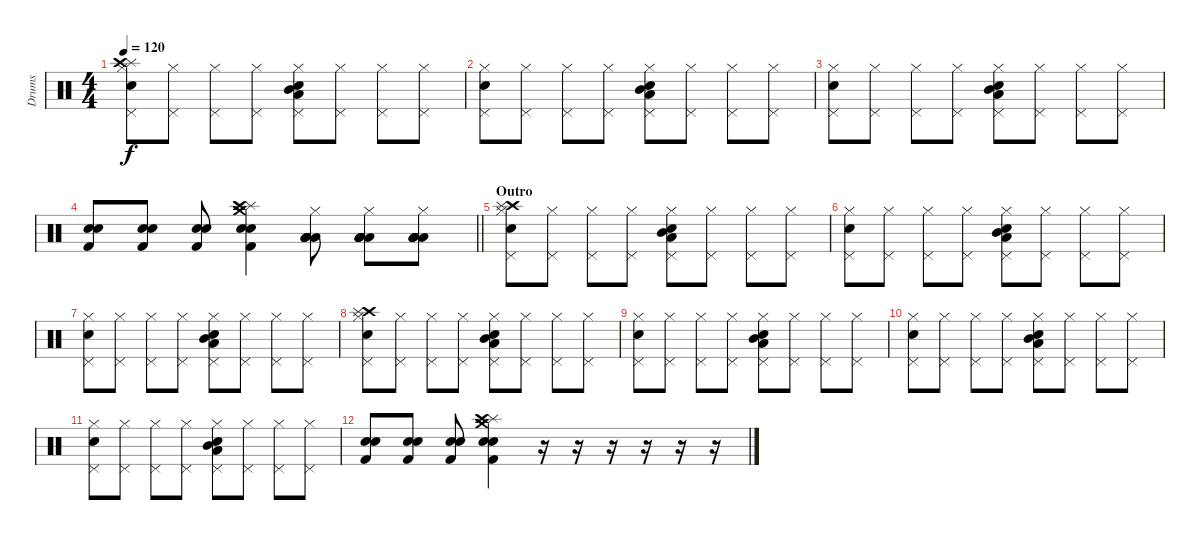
\track ("Drums" "Drums") {instrument percussion}
\staff {score}
\articulation defaults
\ts (4 4)
\tempo 120
\clef neutral
\ks c
("Hi-Hat (closed)" "Pedal Hi-Hat (hit)" "Snare (hit) 2" "Splash (hit)" "Crash high (hit)").8{dy f} ("Hi-Hat (closed)" "Pedal Hi-Hat (hit)").8 ("Hi-Hat (closed)" "Pedal Hi-Hat (hit)").8 ("Hi-Hat (closed)" "Pedal Hi-Hat (hit)").8 ("Hi-Hat (closed)" "Pedal Hi-Hat (hit)" "Mid Tom (hit)" "Low Floor Tom (hit)" "Electric Snare (hit)").8 ("Hi-Hat (closed)" "Pedal Hi-Hat (hit)").8 ("Hi-Hat (closed)" "Pedal Hi-Hat (hit)").8 ("Hi-Hat (closed)" "Pedal Hi-Hat (hit)").8 |
("Hi-Hat (closed)" "Pedal Hi-Hat (hit)" "Snare (hit) 2").8 ("Hi-Hat (closed)" "Pedal Hi-Hat (hit)").8 ("Hi-Hat (closed)" "Pedal Hi-Hat (hit)").8 ("Hi-Hat (closed)" "Pedal Hi-Hat (hit)").8 ("Hi-Hat (closed)" "Pedal Hi-Hat (hit)" "Mid Tom (hit)" "Low Floor Tom (hit)" "Electric Snare (hit)").8 ("Hi-Hat (closed)" "Pedal Hi-Hat (hit)").8 ("Hi-Hat (closed)" "Pedal Hi-Hat (hit)").8 ("Hi-Hat (closed)" "Pedal Hi-Hat (hit)").8 |
("Hi-Hat (closed)" "Pedal Hi-Hat (hit)" "Snare (hit) 2").8 ("Hi-Hat (closed)" "Pedal Hi-Hat (hit)").8 ("Hi-Hat (closed)" "Pedal Hi-Hat (hit)").8 ("Hi-Hat (closed)" "Pedal Hi-Hat (hit)").8 ("Hi-Hat (closed)" "Pedal Hi-Hat (hit)" "Mid Tom (hit)" "Low Floor Tom (hit)" "Electric Snare (hit)").8 ("Hi-Hat (closed)" "Pedal Hi-Hat (hit)").8 ("Hi-Hat (closed)" "Pedal Hi-Hat (hit)").8 ("Hi-Hat (closed)" "Pedal Hi-Hat (hit)").8 |
\barLineRight lightlight
("Kick (hit) 2" "Snare (hit) 2" "Electric Snare (hit)").8 ("Kick (hit) 2" "Snare (hit) 2" "Electric Snare (hit)").8 ("Kick (hit) 2" "Snare (hit) 2" "Electric Snare (hit)").8 ("Kick (hit) 2" "Snare (hit) 2" "Electric Snare (hit)" "Splash (hit)" "Crash medium (hit)" "Crash high (hit)").4 ("Hi-Hat (closed)" "Low Tom (hit)" "Low Tom (hit)" "Low Tom (hit)" "Low Tom (hit)" "Low Tom (hit)").8 ("Hi-Hat (closed)" "Low Tom (hit)" "Low Tom (hit)" "Low Tom (hit)" "Low Tom (hit)" "Low Tom (hit)").8 ("Hi-Hat (closed)" "Low Tom (hit)" "Low Tom (hit)" "Low Tom (hit)" "Low Tom (hit)" "Low Tom (hit)").8 |
\section ("" "Outro")
("Hi-Hat (closed)" "Pedal Hi-Hat (hit)" "Snare (hit) 2" "Crash high (hit)" "Splash (hit)").8 ("Hi-Hat (closed)" "Pedal Hi-Hat (hit)").8 ("Hi-Hat (closed)" "Pedal Hi-Hat (hit)").8 ("Hi-Hat (closed)" "Pedal Hi-Hat (hit)").8 ("Hi-Hat (closed)" "Pedal Hi-Hat (hit)" "Mid Tom (hit)" "Low Floor Tom (hit)" "Electric Snare (hit)").8 ("Hi-Hat (closed)" "Pedal Hi-Hat (hit)").8 ("Hi-Hat (closed)" "Pedal Hi-Hat (hit)").8 ("Hi-Hat (closed)" "Pedal Hi-Hat (hit)").8 |
("Hi-Hat (closed)" "Pedal Hi-Hat (hit)" "Snare (hit) 2").8 ("Hi-Hat (closed)" "Pedal Hi-Hat (hit)").8 ("Hi-Hat (closed)" "Pedal Hi-Hat (hit)").8 ("Hi-Hat (closed)" "Pedal Hi-Hat (hit)").8 ("Hi-Hat (closed)" "Pedal Hi-Hat (hit)" "Mid Tom (hit)" "Low Floor Tom (hit)" "Electric Snare (hit)").8 ("Hi-Hat (closed)" "Pedal Hi-Hat (hit)").8 ("Hi-Hat (closed)" "Pedal Hi-Hat (hit)").8 ("Hi-Hat (closed)" "Pedal Hi-Hat (hit)").8 |
("Hi-Hat (closed)" "Pedal Hi-Hat (hit)" "Snare (hit) 2").8 ("Hi-Hat (closed)" "Pedal Hi-Hat (hit)").8 ("Hi-Hat (closed)" "Pedal Hi-Hat (hit)").8 ("Hi-Hat (closed)" "Pedal Hi-Hat (hit)").8 ("Hi-Hat (closed)" "Pedal Hi-Hat (hit)" "Mid Tom (hit)" "Low Floor Tom (hit)" "Electric Snare (hit)").8 ("Hi-Hat (closed)" "Pedal Hi-Hat (hit)").8 ("Hi-Hat (closed)" "Pedal Hi-Hat (hit)").8 ("Hi-Hat (closed)" "Pedal Hi-Hat (hit)").8 |
("Hi-Hat (closed)" "Pedal Hi-Hat (hit)" "Snare (hit) 2" "Crash high (hit)" "Splash (hit)").8 ("Hi-Hat (closed)" "Pedal Hi-Hat (hit)").8 ("Hi-Hat (closed)" "Pedal Hi-Hat (hit)").8 ("Hi-Hat (closed)" "Pedal Hi-Hat (hit)").8 ("Hi-Hat (closed)" "Pedal Hi-Hat (hit)" "Mid Tom (hit)" "Low Floor Tom (hit)" "Electric Snare (hit)").8 ("Hi-Hat (closed)" "Pedal Hi-Hat (hit)").8 ("Hi-Hat (closed)" "Pedal Hi-Hat (hit)").8 ("Hi-Hat (closed)" "Pedal Hi-Hat (hit)").8 |
("Hi-Hat (closed)" "Pedal Hi-Hat (hit)" "Snare (hit) 2").8 ("Hi-Hat (closed)" "Pedal Hi-Hat (hit)").8 ("Hi-Hat (closed)" "Pedal Hi-Hat (hit)").8 ("Hi-Hat (closed)" "Pedal Hi-Hat (hit)").8 ("Hi-Hat (closed)" "Pedal Hi-Hat (hit)" "Mid Tom (hit)" "Low Floor Tom (hit)" "Electric Snare (hit)").8 ("Hi-Hat (closed)" "Pedal Hi-Hat (hit)").8 ("Hi-Hat (closed)" "Pedal Hi-Hat (hit)").8 ("Hi-Hat (closed)" "Pedal Hi-Hat (hit)").8 |
("Hi-Hat (closed)" "Pedal Hi-Hat (hit)" "Snare (hit) 2").8 ("Hi-Hat (closed)" "Pedal Hi-Hat (hit)").8 ("Hi-Hat (closed)" "Pedal Hi-Hat (hit)").8 ("Hi-Hat (closed)" "Pedal Hi-Hat (hit)").8 ("Hi-Hat (closed)" "Pedal Hi-Hat (hit)" "Mid Tom (hit)" "Low Floor Tom (hit)" "Electric Snare (hit)").8 ("Hi-Hat (closed)" "Pedal Hi-Hat (hit)").8 ("Hi-Hat (closed)" "Pedal Hi-Hat (hit)").8 ("Hi-Hat (closed)" "Pedal Hi-Hat (hit)").8 |
("Hi-Hat (closed)" "Pedal Hi-Hat (hit)" "Snare (hit) 2").8 ("Hi-Hat (closed)" "Pedal Hi-Hat (hit)").8 ("Hi-Hat (closed)" "Pedal Hi-Hat (hit)").8 ("Hi-Hat (closed)" "Pedal Hi-Hat (hit)").8 ("Hi-Hat (closed)" "Pedal Hi-Hat (hit)" "Mid Tom (hit)" "Low Floor Tom (hit)" "Electric Snare (hit)").8 ("Hi-Hat (closed)" "Pedal Hi-Hat (hit)").8 ("Hi-Hat (closed)" "Pedal Hi-Hat (hit)").8 ("Hi-Hat (closed)" "Pedal Hi-Hat (hit)").8 |
("Kick (hit) 2" "Snare (hit) 2" "Electric Snare (hit)").8 ("Kick (hit) 2" "Snare (hit) 2" "Electric Snare (hit)").8 ("Kick (hit) 2" "Snare (hit) 2" "Electric Snare (hit)").8 ("Kick (hit) 2" "Snare (hit) 2" "Electric Snare (hit)" "Crash medium (hit)" "Splash (hit)" "Crash high (hit)").4 r.16 r.16 r.16 r.16 r.16 r.16
